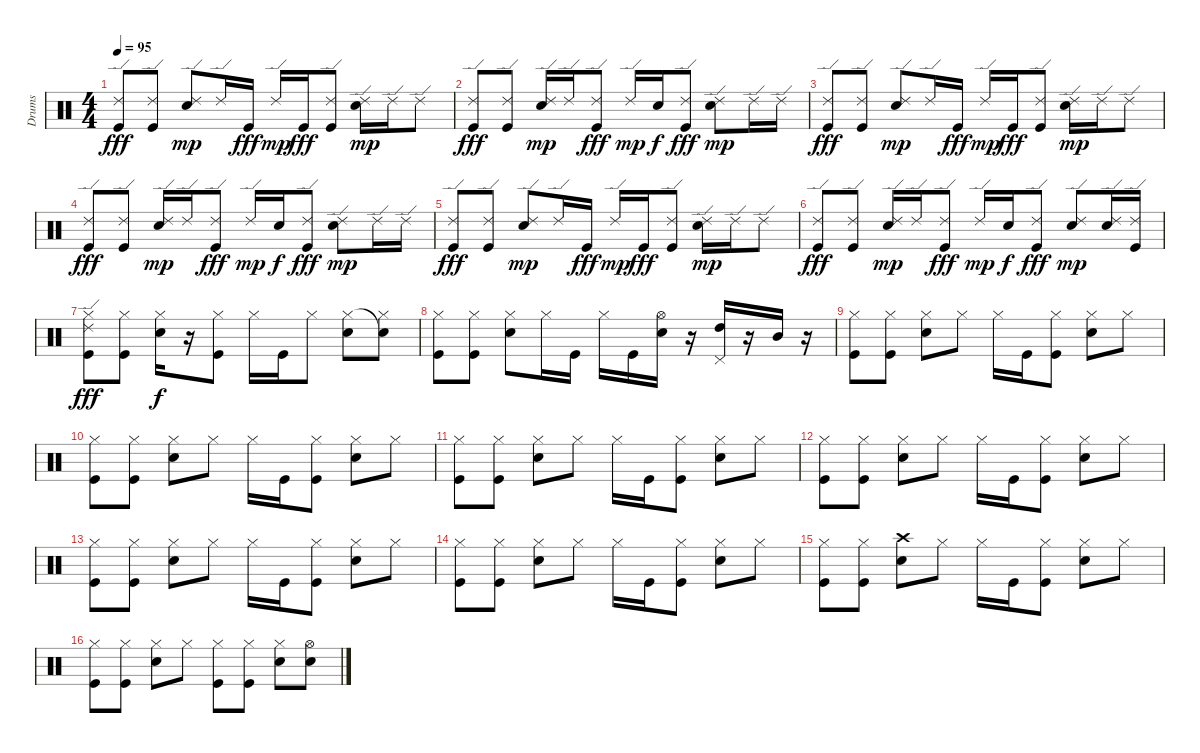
\track ("Drums" "Drums") {instrument percussion}
\staff {score}
\articulation defaults
\ts (4 4)
\tempo 95
\clef neutral
\ks c
("Ride (edge) 2" "Kick (hit)").8{dy fff} ("Ride (edge) 2" "Kick (hit)").8 ("Ride (edge) 2" "Electric Snare (hit)").8{dy mp} "Ride (edge) 2".16 "Kick (hit)".16{dy fff} "Ride (edge) 2".16{dy mp} "Kick (hit)".16{dy fff} ("Ride (edge) 2" "Kick (hit)").8 ("Ride (edge) 2" "Electric Snare (hit)").16{dy mp} "Ride (edge) 2".16 "Ride (edge) 2".8 |
("Ride (edge) 2" "Kick (hit)").8{dy fff} ("Ride (edge) 2" "Kick (hit)").8 ("Ride (edge) 2" "Electric Snare (hit)").16{dy mp} "Ride (edge) 2".16 ("Ride (edge) 2" "Kick (hit)").8{dy fff} "Ride (edge) 2".16{dy mp} "Electric Snare (hit)".16{dy f} ("Ride (edge) 2" "Kick (hit)").8{dy fff} ("Ride (edge) 2" "Electric Snare (hit)").8{dy mp} "Ride (edge) 2".16 "Ride (edge) 2".16 |
("Ride (edge) 2" "Kick (hit)").8{dy fff} ("Ride (edge) 2" "Kick (hit)").8 ("Ride (edge) 2" "Electric Snare (hit)").8{dy mp} "Ride (edge) 2".16 "Kick (hit)".16{dy fff} "Ride (edge) 2".16{dy mp} "Kick (hit)".16{dy fff} ("Ride (edge) 2" "Kick (hit)").8 ("Ride (edge) 2" "Electric Snare (hit)").16{dy mp} "Ride (edge) 2".16 "Ride (edge) 2".8 |
("Ride (edge) 2" "Kick (hit)").8{dy fff} ("Ride (edge) 2" "Kick (hit)").8 ("Ride (edge) 2" "Electric Snare (hit)").16{dy mp} "Ride (edge) 2".16 ("Ride (edge) 2" "Kick (hit)").8{dy fff} "Ride (edge) 2".16{dy mp} "Electric Snare (hit)".16{dy f} ("Ride (edge) 2" "Kick (hit)").8{dy fff} ("Ride (edge) 2" "Electric Snare (hit)").8{dy mp} "Ride (edge) 2".16 "Ride (edge) 2".16 |
("Ride (edge) 2" "Kick (hit)").8{dy fff} ("Ride (edge) 2" "Kick (hit)").8 ("Ride (edge) 2" "Electric Snare (hit)").8{dy mp} "Ride (edge) 2".16 "Kick (hit)".16{dy fff} "Ride (edge) 2".16{dy mp} "Kick (hit)".16{dy fff} ("Ride (edge) 2" "Kick (hit)").8 ("Ride (edge) 2" "Electric Snare (hit)").16{dy mp} "Ride (edge) 2".16 "Ride (edge) 2".8 |
("Ride (edge) 2" "Kick (hit)").8{dy fff} ("Ride (edge) 2" "Kick (hit)").8 ("Ride (edge) 2" "Electric Snare (hit)").16{dy mp} "Ride (edge) 2".16 ("Ride (edge) 2" "Kick (hit)").8{dy fff} "Ride (edge) 2".16{dy mp} "Electric Snare (hit)".16{dy f} ("Ride (edge) 2" "Kick (hit)").8{dy fff} ("Ride (edge) 2" "Electric Snare (hit)").8{dy mp} ("Ride (edge) 2" "Electric Snare (hit)").16 ("Ride (edge) 2" "Kick (hit)").16 |
("Ride (edge) 2" "Hi-Hat (closed)" "Kick (hit)").8{dy fff} ("Hi-Hat (closed)" "Kick (hit)").8 ("Hi-Hat (closed)" "Electric Snare (hit)").16{dy f} r.16 ("Hi-Hat (closed)" "Kick (hit)").8 "Hi-Hat (closed)".16 "Kick (hit)".16 "Hi-Hat (closed)".8 ("Hi-Hat (closed)" "Electric Snare (hit)").8 ("Snare (hit)"{t} "Hi-Hat (closed)").8 |
("Hi-Hat (closed)" "Kick (hit)").8 ("Hi-Hat (closed)" "Kick (hit)").8 ("Hi-Hat (closed)" "Electric Snare (hit)").8 "Hi-Hat (closed)".16 "Kick (hit)".16 "Hi-Hat (closed)".16 "Kick (hit)".16 ("Hi-Hat (open)" "Electric Snare (hit)").16 r.16 ("Pedal Hi-Hat (hit)" "High Tom (hit)").16 r.16 "Mid Tom (hit)".16 r.16 |
("Hi-Hat (closed)" "Kick (hit)").8 ("Hi-Hat (closed)" "Kick (hit)").8 ("Hi-Hat (closed)" "Electric Snare (hit)").8 "Hi-Hat (closed)".8 "Hi-Hat (closed)".16 "Kick (hit)".16 ("Hi-Hat (closed)" "Kick (hit)").8 ("Hi-Hat (closed)" "Electric Snare (hit)").8 "Hi-Hat (closed)".8 |
("Hi-Hat (closed)" "Kick (hit)").8 ("Hi-Hat (closed)" "Kick (hit)").8 ("Hi-Hat (closed)" "Electric Snare (hit)").8 "Hi-Hat (closed)".8 "Hi-Hat (closed)".16 "Kick (hit)".16 ("Hi-Hat (closed)" "Kick (hit)").8 ("Hi-Hat (closed)" "Electric Snare (hit)").8 "Hi-Hat (closed)".8 |
("Hi-Hat (closed)" "Kick (hit)").8 ("Hi-Hat (closed)" "Kick (hit)").8 ("Hi-Hat (closed)" "Electric Snare (hit)").8 "Hi-Hat (closed)".8 "Hi-Hat (closed)".16 "Kick (hit)".16 ("Hi-Hat (closed)" "Kick (hit)").8 ("Hi-Hat (closed)" "Electric Snare (hit)").8 "Hi-Hat (closed)".8 |
("Hi-Hat (closed)" "Kick (hit)").8 ("Hi-Hat (closed)" "Kick (hit)").8 ("Hi-Hat (closed)" "Electric Snare (hit)").8 "Hi-Hat (closed)".8 "Hi-Hat (closed)".16 "Kick (hit)".16 ("Hi-Hat (closed)" "Kick (hit)").8 ("Hi-Hat (closed)" "Electric Snare (hit)").8 "Hi-Hat (closed)".8 |
("Hi-Hat (closed)" "Kick (hit)").8 ("Hi-Hat (closed)" "Kick (hit)").8 ("Hi-Hat (closed)" "Electric Snare (hit)").8 "Hi-Hat (closed)".8 "Hi-Hat (closed)".16 "Kick (hit)".16 ("Hi-Hat (closed)" "Kick (hit)").8 ("Hi-Hat (closed)" "Electric Snare (hit)").8 "Hi-Hat (closed)".8 |
("Hi-Hat (closed)" "Kick (hit)").8 ("Hi-Hat (closed)" "Kick (hit)").8 ("Hi-Hat (closed)" "Electric Snare (hit)").8 "Hi-Hat (closed)".8 "Hi-Hat (closed)".16 "Kick (hit)".16 ("Hi-Hat (closed)" "Kick (hit)").8 ("Hi-Hat (closed)" "Electric Snare (hit)").8 "Hi-Hat (closed)".8 |
("Hi-Hat (closed)" "Kick (hit)").8 ("Hi-Hat (closed)" "Kick (hit)").8 ("Crash high (hit)" "Electric Snare (hit)").8 "Hi-Hat (closed)".8 "Hi-Hat (closed)".16 "Kick (hit)".16 ("Hi-Hat (closed)" "Kick (hit)").8 ("Hi-Hat (closed)" "Electric Snare (hit)").8 "Hi-Hat (closed)".8 |
("Hi-Hat (closed)" "Kick (hit)").8 ("Hi-Hat (closed)" "Kick (hit)").8 ("Hi-Hat (closed)" "Electric Snare (hit)").8 "Hi-Hat (closed)".8 ("Hi-Hat (closed)" "Kick (hit)").8 ("Hi-Hat (closed)" "Kick (hit)").8 ("Hi-Hat (closed)" "Electric Snare (hit)").8 ("Hi-Hat (open)" "Electric Snare (hit)").8
